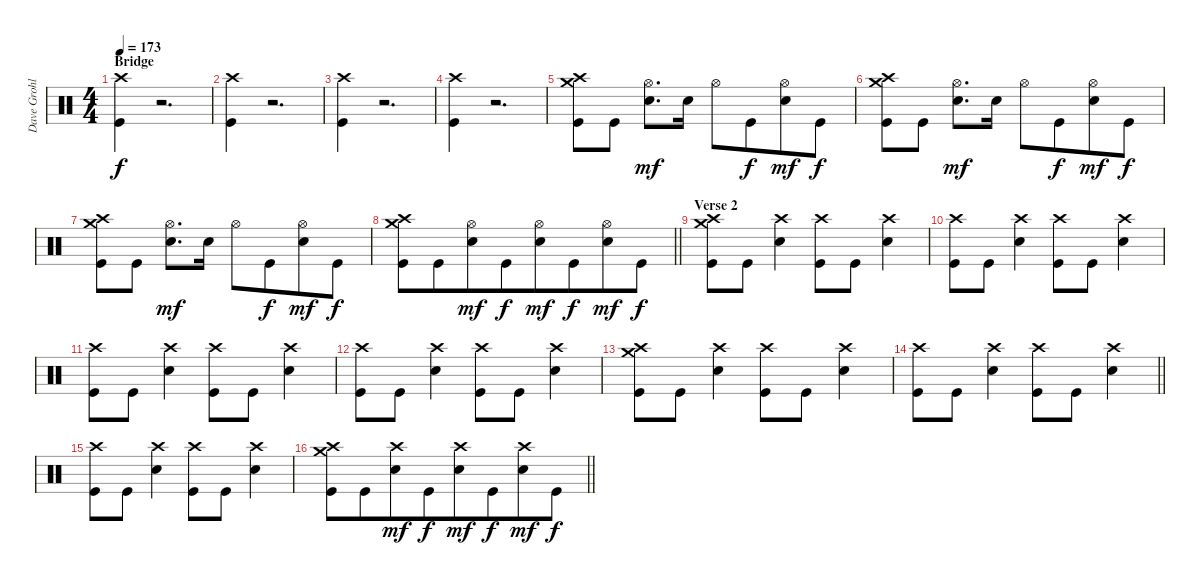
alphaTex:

\track ("Dave Grohl" "Dave Grohl") {instrument percussion}
\staff {score}
\articulation defaults
\ts (4 4)
\section ("" "Bridge")
\tempo 173
\clef neutral
\ks c
("Crash high (hit)" "Kick (hit)").4{dy f} r.2{d} |
("Crash high (hit)" "Kick (hit)").4 r.2{d} |
("Crash high (hit)" "Kick (hit)").4 r.2{d} |
("Crash high (hit)" "Kick (hit)").4 r.2{d} |
("Crash medium (hit)" "Crash high (hit)" "Kick (hit)").8 "Kick (hit)".8 ("Hi-Hat (open)" "Snare (hit) 2").8{d dy mf} "Snare (hit) 2".16 "Hi-Hat (open)".8 "Kick (hit)".8{dy f beam merge} ("Hi-Hat (open)" "Snare (hit) 2").8{dy mf} "Kick (hit)".8{dy f} |
("Crash medium (hit)" "Crash high (hit)" "Kick (hit)").8 "Kick (hit)".8 ("Hi-Hat (open)" "Snare (hit) 2").8{d dy mf} "Snare (hit) 2".16 "Hi-Hat (open)".8 "Kick (hit)".8{dy f beam merge} ("Hi-Hat (open)" "Snare (hit) 2").8{dy mf} "Kick (hit)".8{dy f} |
("Crash medium (hit)" "Crash high (hit)" "Kick (hit)").8 "Kick (hit)".8 ("Hi-Hat (open)" "Snare (hit) 2").8{d dy mf} "Snare (hit) 2".16 "Hi-Hat (open)".8 "Kick (hit)".8{dy f beam merge} ("Hi-Hat (open)" "Snare (hit) 2").8{dy mf} "Kick (hit)".8{dy f} |
\barLineRight lightlight
("Crash medium (hit)" "Crash high (hit)" "Kick (hit)").8 "Kick (hit)".8{beam merge} ("Hi-Hat (open)" "Snare (hit) 2").8{dy mf} "Kick (hit)".8{dy f beam merge} ("Hi-Hat (open)" "Snare (hit) 2").8{dy mf beam merge} "Kick (hit)".8{dy f beam merge} ("Hi-Hat (open)" "Snare (hit) 2").8{dy mf} "Kick (hit)".8{dy f} |
\section ("" "Verse 2")
("Crash medium (hit)" "Crash high (hit)" "Kick (hit)").8 "Kick (hit)".8 ("Crash high (hit)" "Snare (hit) 2").4 ("Crash high (hit)" "Kick (hit)").8 "Kick (hit)".8 ("Crash high (hit)" "Snare (hit) 2").4 |
("Crash high (hit)" "Kick (hit)").8 "Kick (hit)".8 ("Crash high (hit)" "Snare (hit) 2").4 ("Crash high (hit)" "Kick (hit)").8 "Kick (hit)".8 ("Crash high (hit)" "Snare (hit) 2").4 |
("Crash high (hit)" "Kick (hit)").8 "Kick (hit)".8 ("Crash high (hit)" "Snare (hit) 2").4 ("Crash high (hit)" "Kick (hit)").8 "Kick (hit)".8 ("Crash high (hit)" "Snare (hit) 2").4 |
("Crash high (hit)" "Kick (hit)").8 "Kick (hit)".8 ("Crash high (hit)" "Snare (hit) 2").4 ("Crash high (hit)" "Kick (hit)").8 "Kick (hit)".8 ("Crash high (hit)" "Snare (hit) 2").4 |
("Crash medium (hit)" "Crash high (hit)" "Kick (hit)").8 "Kick (hit)".8 ("Crash high (hit)" "Snare (hit) 2").4 ("Crash high (hit)" "Kick (hit)").8 "Kick (hit)".8 ("Crash high (hit)" "Snare (hit) 2").4 |
\barLineRight lightlight
("Crash high (hit)" "Kick (hit)").8 "Kick (hit)".8 ("Crash high (hit)" "Snare (hit) 2").4 ("Crash high (hit)" "Kick (hit)").8 "Kick (hit)".8 ("Crash high (hit)" "Snare (hit) 2").4 |
("Crash high (hit)" "Kick (hit)").8 "Kick (hit)".8 ("Crash high (hit)" "Snare (hit) 2").4 ("Crash high (hit)" "Kick (hit)").8 "Kick (hit)".8 ("Crash high (hit)" "Snare (hit) 2").4 |
\barLineRight lightlight
("Crash medium (hit)" "Crash high (hit)" "Kick (hit)").8 "Kick (hit)".8{beam merge} ("Crash high (hit)" "Snare (hit) 2").8{dy mf} "Kick (hit)".8{dy f beam merge} ("Crash high (hit)" "Snare (hit) 2").8{dy mf beam merge} "Kick (hit)".8{dy f beam merge} ("Crash high (hit)" "Snare (hit) 2").8{dy mf} "Kick (hit)".8{dy f}
